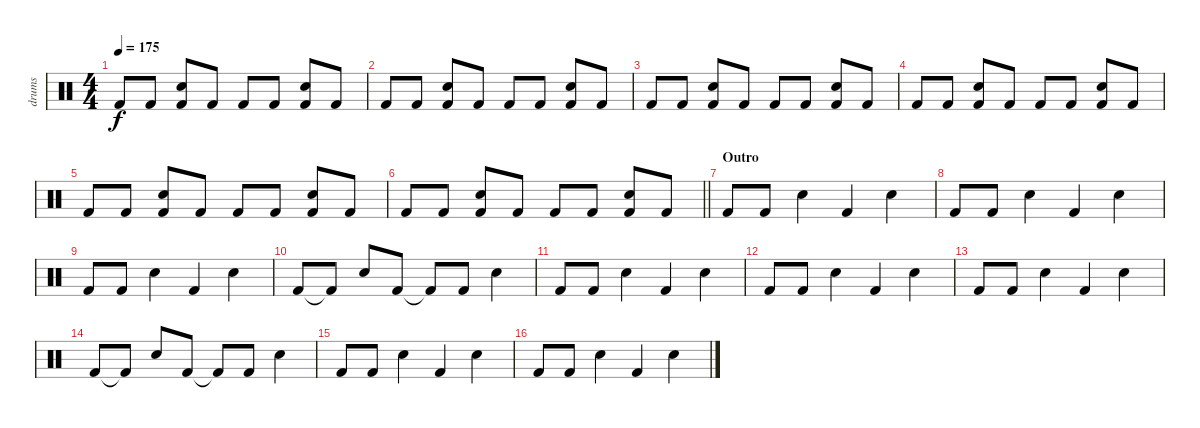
\track ("drums" "drums") {instrument percussion}
\staff {score}
\articulation defaults
\ts (4 4)
\tempo 175
\clef neutral
\ks c "Kick (hit) 2".8{dy f} "Kick (hit) 2".8
("Snare (hit) 2" "Kick (hit) 2").8 "Kick (hit) 2".8 "Kick (hit) 2".8 "Kick (hit) 2".8 ("Snare (hit) 2" "Kick (hit) 2").8 "Kick (hit) 2".8 |
"Kick (hit) 2".8 "Kick (hit) 2".8 ("Snare (hit) 2" "Kick (hit) 2").8 "Kick (hit) 2".8 "Kick (hit) 2".8 "Kick (hit) 2".8 ("Snare (hit) 2" "Kick (hit) 2").8 "Kick (hit) 2".8 |
"Kick (hit) 2".8 "Kick (hit) 2".8 ("Snare (hit) 2" "Kick (hit) 2").8 "Kick (hit) 2".8 "Kick (hit) 2".8 "Kick (hit) 2".8 ("Snare (hit) 2" "Kick (hit) 2").8 "Kick (hit) 2".8 |
"Kick (hit) 2".8 "Kick (hit) 2".8 ("Snare (hit) 2" "Kick (hit) 2").8 "Kick (hit) 2".8 "Kick (hit) 2".8 "Kick (hit) 2".8 ("Snare (hit) 2" "Kick (hit) 2").8 "Kick (hit) 2".8 |
"Kick (hit) 2".8 "Kick (hit) 2".8 ("Snare (hit) 2" "Kick (hit) 2").8 "Kick (hit) 2".8 "Kick (hit) 2".8 "Kick (hit) 2".8 ("Snare (hit) 2" "Kick (hit) 2").8 "Kick (hit) 2".8 |
\barLineRight lightlight "Kick (hit) 2".8 "Kick (hit) 2".8
("Snare (hit) 2" "Kick (hit) 2").8 "Kick (hit) 2".8 "Kick (hit) 2".8 "Kick (hit) 2".8 ("Snare (hit) 2" "Kick (hit) 2").8 "Kick (hit) 2".8 |
\section ("" "Outro")
"Kick (hit) 2".8 "Kick (hit) 2".8 "Snare (hit) 2".4 "Kick (hit) 2".4 "Snare (hit) 2".4 |
"Kick (hit) 2".8 "Kick (hit) 2".8 "Snare (hit) 2".4 "Kick (hit) 2".4 "Snare (hit) 2".4 |
"Kick (hit) 2".8 "Kick (hit) 2".8 "Snare (hit) 2".4 "Kick (hit) 2".4 "Snare (hit) 2".4 |
"Kick (hit) 2".8 "Kick (hit) 2"{t}.8 "Snare (hit) 2".8 "Kick (hit) 2".8 "Kick (hit) 2"{t}.8 "Kick (hit) 2".8 "Snare (hit) 2".4 |
"Kick (hit) 2".8 "Kick (hit) 2".8 "Snare (hit) 2".4 "Kick (hit) 2".4 "Snare (hit) 2".4 |
"Kick (hit) 2".8 "Kick (hit) 2".8 "Snare (hit) 2".4 "Kick (hit) 2".4 "Snare (hit) 2".4 |
"Kick (hit) 2".8 "Kick (hit) 2".8 "Snare (hit) 2".4 "Kick (hit) 2".4 "Snare (hit) 2".4 |
"Kick (hit) 2".8 "Kick (hit) 2"{t}.8 "Snare (hit) 2".8 "Kick (hit) 2".8 "Kick (hit) 2"{t}.8 "Kick (hit) 2".8 "Snare (hit) 2".4 |
"Kick (hit) 2".8 "Kick (hit) 2".8 "Snare (hit) 2".4 "Kick (hit) 2".4 "Snare (hit) 2".4 |
"Kick (hit) 2".8 "Kick (hit) 2".8 "Snare (hit) 2".4 "Kick (hit) 2".4 "Snare (hit) 2".4
